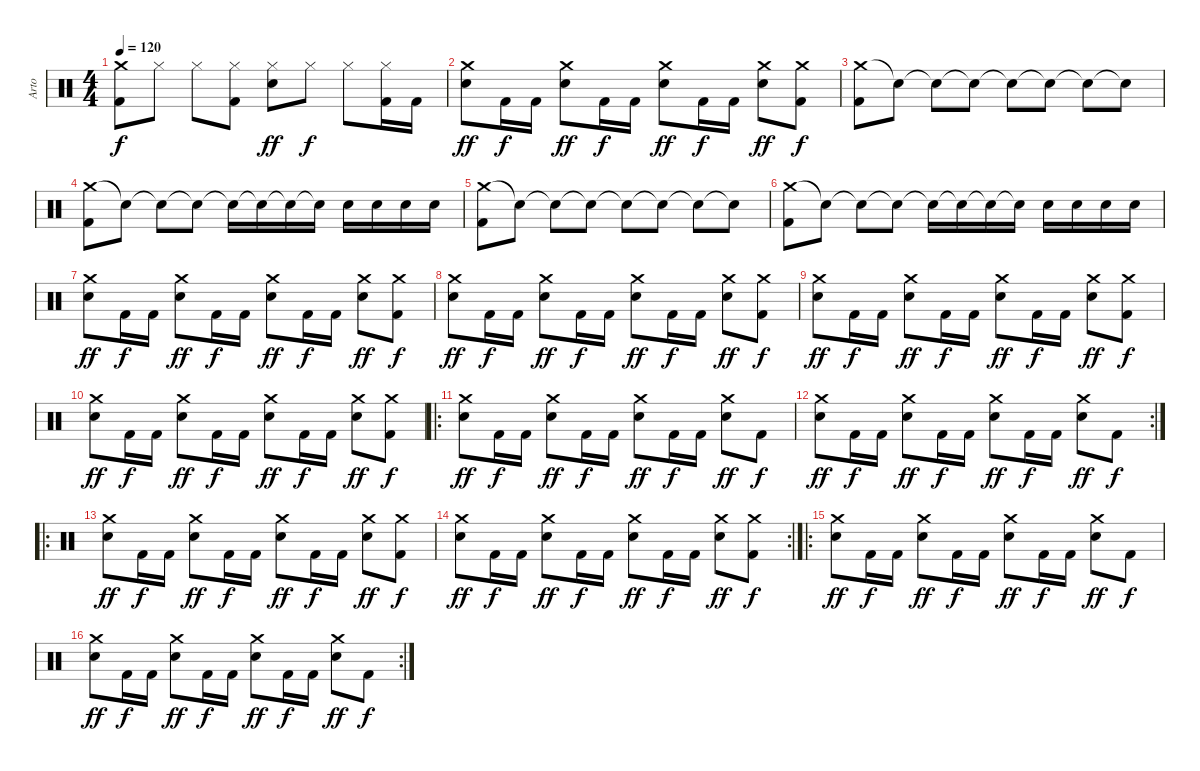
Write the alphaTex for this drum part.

\track ("Arto" "Arto") {instrument percussion}
\staff {score}
\articulation defaults
\ts (4 4)
\tempo 120
\clef neutral
\ks c
("Crash medium (hit)" "Kick (hit) 2").8{dy f} "Hi-Hat (closed)".8 "Hi-Hat (closed)".8 ("Hi-Hat (closed)" "Kick (hit) 2").8 ("Hi-Hat (closed)" "Snare (hit) 2").8{dy ff} "Hi-Hat (closed)".8{dy f} "Hi-Hat (closed)".8 ("Hi-Hat (closed)" "Kick (hit) 2").16 "Kick (hit) 2".16 |
("Crash medium (hit)" "Snare (hit) 2").8{dy ff} "Kick (hit) 2".16{dy f} "Kick (hit) 2".16 ("Crash medium (hit)" "Snare (hit) 2").8{dy ff} "Kick (hit) 2".16{dy f} "Kick (hit) 2".16 ("Crash medium (hit)" "Snare (hit) 2").8{dy ff} "Kick (hit) 2".16{dy f} "Kick (hit) 2".16 ("Crash medium (hit)" "Snare (hit) 2").8{dy ff} ("Crash medium (hit)" "Kick (hit) 2").8{dy f} |
("Crash medium (hit)" "Kick (hit) 2").8 "Snare (hit)"{t}.8 "Snare (hit)"{t}.8 "Snare (hit)"{t}.8 "Snare (hit)"{t}.8 "Snare (hit)"{t}.8 "Snare (hit)"{t}.8 "Snare (hit)"{t}.8 |
("Crash medium (hit)" "Kick (hit) 2").8 "Snare (hit)"{t}.8 "Snare (hit)"{t}.8 "Snare (hit)"{t}.8 "Snare (hit)"{t}.16 "Snare (hit)"{t}.16 "Snare (hit)"{t}.16 "Snare (hit)"{t}.16 "Snare (hit) 2".16 "Snare (hit) 2".16 "Snare (hit) 2".16 "Snare (hit) 2".16 |
("Crash medium (hit)" "Kick (hit) 2").8 "Snare (hit)"{t}.8 "Snare (hit)"{t}.8 "Snare (hit)"{t}.8 "Snare (hit)"{t}.8 "Snare (hit)"{t}.8 "Snare (hit)"{t}.8 "Snare (hit)"{t}.8 |
("Crash medium (hit)" "Kick (hit) 2").8 "Snare (hit)"{t}.8 "Snare (hit)"{t}.8 "Snare (hit)"{t}.8 "Snare (hit)"{t}.16 "Snare (hit)"{t}.16 "Snare (hit)"{t}.16 "Snare (hit)"{t}.16 "Snare (hit) 2".16 "Snare (hit) 2".16 "Snare (hit) 2".16 "Snare (hit) 2".16 |
("Crash medium (hit)" "Snare (hit) 2").8{dy ff} "Kick (hit) 2".16{dy f} "Kick (hit) 2".16 ("Crash medium (hit)" "Snare (hit) 2").8{dy ff} "Kick (hit) 2".16{dy f} "Kick (hit) 2".16 ("Crash medium (hit)" "Snare (hit) 2").8{dy ff} "Kick (hit) 2".16{dy f} "Kick (hit) 2".16 ("Crash medium (hit)" "Snare (hit) 2").8{dy ff} ("Crash medium (hit)" "Kick (hit) 2").8{dy f} |
("Crash medium (hit)" "Snare (hit) 2").8{dy ff} "Kick (hit) 2".16{dy f} "Kick (hit) 2".16 ("Crash medium (hit)" "Snare (hit) 2").8{dy ff} "Kick (hit) 2".16{dy f} "Kick (hit) 2".16 ("Crash medium (hit)" "Snare (hit) 2").8{dy ff} "Kick (hit) 2".16{dy f} "Kick (hit) 2".16 ("Crash medium (hit)" "Snare (hit) 2").8{dy ff} ("Crash medium (hit)" "Kick (hit) 2").8{dy f} |
("Crash medium (hit)" "Snare (hit) 2").8{dy ff} "Kick (hit) 2".16{dy f} "Kick (hit) 2".16 ("Crash medium (hit)" "Snare (hit) 2").8{dy ff} "Kick (hit) 2".16{dy f} "Kick (hit) 2".16 ("Crash medium (hit)" "Snare (hit) 2").8{dy ff} "Kick (hit) 2".16{dy f} "Kick (hit) 2".16 ("Crash medium (hit)" "Snare (hit) 2").8{dy ff} ("Crash medium (hit)" "Kick (hit) 2").8{dy f} |
("Crash medium (hit)" "Snare (hit) 2").8{dy ff} "Kick (hit) 2".16{dy f} "Kick (hit) 2".16 ("Crash medium (hit)" "Snare (hit) 2").8{dy ff} "Kick (hit) 2".16{dy f} "Kick (hit) 2".16 ("Crash medium (hit)" "Snare (hit) 2").8{dy ff} "Kick (hit) 2".16{dy f} "Kick (hit) 2".16 ("Crash medium (hit)" "Snare (hit) 2").8{dy ff} ("Crash medium (hit)" "Kick (hit) 2").8{dy f} |
\ro
("Crash medium (hit)" "Snare (hit) 2").8{dy ff} "Kick (hit) 2".16{dy f} "Kick (hit) 2".16 ("Crash medium (hit)" "Snare (hit) 2").8{dy ff} "Kick (hit) 2".16{dy f} "Kick (hit) 2".16 ("Crash medium (hit)" "Snare (hit) 2").8{dy ff} "Kick (hit) 2".16{dy f} "Kick (hit) 2".16 ("Crash medium (hit)" "Snare (hit) 2").8{dy ff} "Kick (hit) 2".8{dy f} |
\rc 2
("Crash medium (hit)" "Snare (hit) 2").8{dy ff} "Kick (hit) 2".16{dy f} "Kick (hit) 2".16 ("Crash medium (hit)" "Snare (hit) 2").8{dy ff} "Kick (hit) 2".16{dy f} "Kick (hit) 2".16 ("Crash medium (hit)" "Snare (hit) 2").8{dy ff} "Kick (hit) 2".16{dy f} "Kick (hit) 2".16 ("Crash medium (hit)" "Snare (hit) 2").8{dy ff} "Kick (hit) 2".8{dy f} |
\ro
("Crash medium (hit)" "Snare (hit) 2").8{dy ff} "Kick (hit) 2".16{dy f} "Kick (hit) 2".16 ("Crash medium (hit)" "Snare (hit) 2").8{dy ff} "Kick (hit) 2".16{dy f} "Kick (hit) 2".16 ("Crash medium (hit)" "Snare (hit) 2").8{dy ff} "Kick (hit) 2".16{dy f} "Kick (hit) 2".16 ("Crash medium (hit)" "Snare (hit) 2").8{dy ff} ("Crash medium (hit)" "Kick (hit) 2").8{dy f} |
\rc 2
("Crash medium (hit)" "Snare (hit) 2").8{dy ff} "Kick (hit) 2".16{dy f} "Kick (hit) 2".16 ("Crash medium (hit)" "Snare (hit) 2").8{dy ff} "Kick (hit) 2".16{dy f} "Kick (hit) 2".16 ("Crash medium (hit)" "Snare (hit) 2").8{dy ff} "Kick (hit) 2".16{dy f} "Kick (hit) 2".16 ("Crash medium (hit)" "Snare (hit) 2").8{dy ff} ("Crash medium (hit)" "Kick (hit) 2").8{dy f} |
\ro
("Crash medium (hit)" "Snare (hit) 2").8{dy ff} "Kick (hit) 2".16{dy f} "Kick (hit) 2".16 ("Crash medium (hit)" "Snare (hit) 2").8{dy ff} "Kick (hit) 2".16{dy f} "Kick (hit) 2".16 ("Crash medium (hit)" "Snare (hit) 2").8{dy ff} "Kick (hit) 2".16{dy f} "Kick (hit) 2".16 ("Crash medium (hit)" "Snare (hit) 2").8{dy ff} "Kick (hit) 2".8{dy f} |
\rc 2
("Crash medium (hit)" "Snare (hit) 2").8{dy ff} "Kick (hit) 2".16{dy f} "Kick (hit) 2".16 ("Crash medium (hit)" "Snare (hit) 2").8{dy ff} "Kick (hit) 2".16{dy f} "Kick (hit) 2".16 ("Crash medium (hit)" "Snare (hit) 2").8{dy ff} "Kick (hit) 2".16{dy f} "Kick (hit) 2".16 ("Crash medium (hit)" "Snare (hit) 2").8{dy ff} "Kick (hit) 2".8{dy f}
